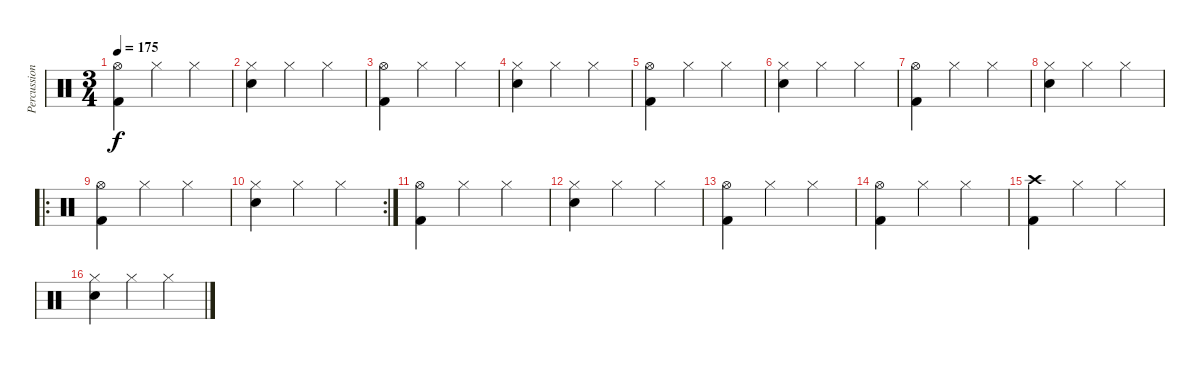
\track ("Percussion" "Percussion") {instrument percussion}
\staff {score}
\articulation defaults
\ts (3 4)
\tempo 175
\clef neutral
\ks c
("Hi-Hat (open)" "Kick (hit) 2").4{dy f} "Hi-Hat (closed)".4 "Hi-Hat (closed)".4 |
("Electric Snare (hit)" "Hi-Hat (closed)").4 "Hi-Hat (closed)".4 "Hi-Hat (closed)".4 |
("Hi-Hat (open)" "Kick (hit) 2").4 "Hi-Hat (closed)".4 "Hi-Hat (closed)".4 |
("Electric Snare (hit)" "Hi-Hat (closed)").4 "Hi-Hat (closed)".4 "Hi-Hat (closed)".4 |
("Hi-Hat (open)" "Kick (hit) 2").4 "Hi-Hat (closed)".4 "Hi-Hat (closed)".4 |
("Electric Snare (hit)" "Hi-Hat (closed)").4 "Hi-Hat (closed)".4 "Hi-Hat (closed)".4 |
("Hi-Hat (open)" "Kick (hit) 2").4 "Hi-Hat (closed)".4 "Hi-Hat (closed)".4 |
("Electric Snare (hit)" "Hi-Hat (closed)").4 "Hi-Hat (closed)".4 "Hi-Hat (closed)".4 |
\ro
("Hi-Hat (open)" "Kick (hit) 2").4 "Hi-Hat (closed)".4 "Hi-Hat (closed)".4 |
\rc 2
("Electric Snare (hit)" "Hi-Hat (closed)").4 "Hi-Hat (closed)".4 "Hi-Hat (closed)".4 |
("Hi-Hat (open)" "Kick (hit) 2").4 "Hi-Hat (closed)".4 "Hi-Hat (closed)".4 |
("Electric Snare (hit)" "Hi-Hat (closed)").4 "Hi-Hat (closed)".4 "Hi-Hat (closed)".4 |
("Hi-Hat (open)" "Kick (hit) 2").4 "Hi-Hat (closed)".4 "Hi-Hat (closed)".4 |
("Hi-Hat (open)" "Kick (hit) 2").4 "Hi-Hat (closed)".4 "Hi-Hat (closed)".4 |
("Crash high (hit)" "Kick (hit) 2").4 "Hi-Hat (closed)".4 "Hi-Hat (closed)".4 |
("Electric Snare (hit)" "Hi-Hat (closed)").4 "Hi-Hat (closed)".4 "Hi-Hat (closed)".4
